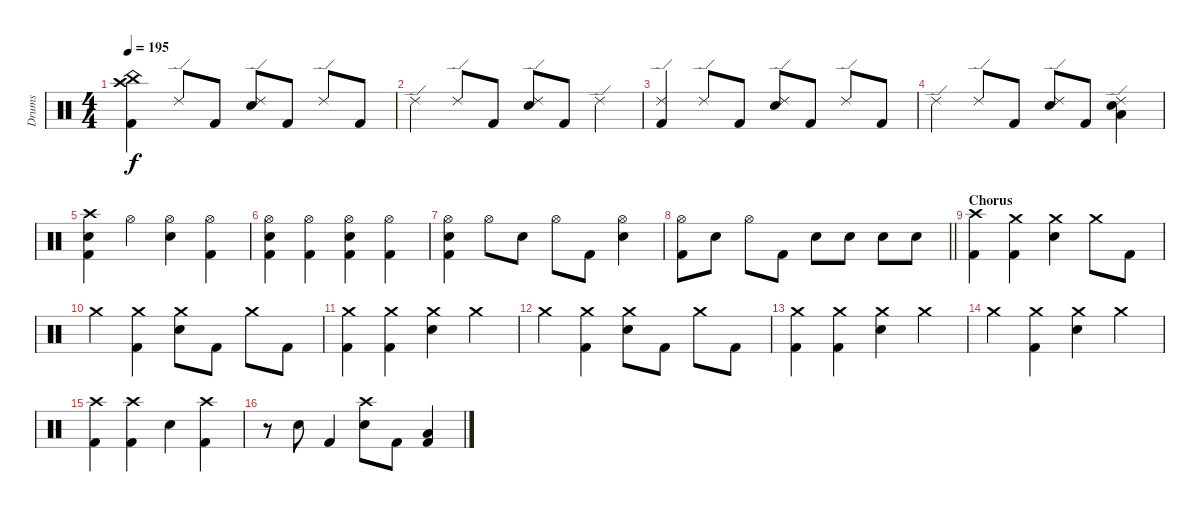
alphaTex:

\track ("Drums" "Drums") {instrument percussion}
\staff {score}
\articulation defaults
\ts (4 4)
\tempo 195
\clef neutral
\ks c
("Crash high (hit)" "Kick (hit) 2" "China (hit)").4{dy f} "Ride (edge) 2".8 "Kick (hit) 2".8 ("Ride (edge) 2" "Snare (hit) 2").8 "Kick (hit) 2".8 "Ride (edge) 2".8 "Kick (hit) 2".8 |
"Ride (edge) 2".4 "Ride (edge) 2".8 "Kick (hit) 2".8 ("Ride (edge) 2" "Snare (hit) 2").8 "Kick (hit) 2".8 "Ride (edge) 2".4 |
("Ride (edge) 2" "Kick (hit) 2").4 "Ride (edge) 2".8 "Kick (hit) 2".8 ("Ride (edge) 2" "Snare (hit) 2").8 "Kick (hit) 2".8 "Ride (edge) 2".8 "Kick (hit) 2".8 |
"Ride (edge) 2".4 "Ride (edge) 2".8 "Kick (hit) 2".8 ("Ride (edge) 2" "Snare (hit) 2").8 "Kick (hit) 2".8 ("Ride (edge) 2" "Snare (hit) 2" "Low Floor Tom (hit)").4 |
("Crash high (hit)" "Snare (hit) 2" "Kick (hit) 2").4 "Hi-Hat (open)".4 ("Hi-Hat (open)" "Snare (hit) 2").4 ("Hi-Hat (open)" "Kick (hit) 2").4 |
("Hi-Hat (open)" "Snare (hit) 2" "Kick (hit) 2").4 ("Hi-Hat (open)" "Kick (hit) 2").4 ("Hi-Hat (open)" "Snare (hit) 2" "Kick (hit) 2").4 ("Hi-Hat (open)" "Kick (hit) 2").4 |
("Hi-Hat (open)" "Snare (hit) 2" "Kick (hit) 2").4 "Hi-Hat (open)".8 "Snare (hit) 2".8 "Hi-Hat (open)".8 "Kick (hit) 2".8 ("Hi-Hat (open)" "Snare (hit) 2").4 |
\barLineRight lightlight
("Hi-Hat (open)" "Kick (hit) 2").8 "Snare (hit) 2".8 "Hi-Hat (open)".8 "Kick (hit) 2".8 "Snare (hit) 2".8 "Snare (hit) 2".8 "Snare (hit) 2".8 "Snare (hit) 2".8 |
\section ("" "Chorus")
("Crash high (hit)" "Kick (hit) 2").4 ("Crash medium (hit)" "Kick (hit) 2").4 ("Crash medium (hit)" "Snare (hit) 2").4 "Crash medium (hit)".8 "Kick (hit) 2".8 |
"Crash medium (hit)".4 ("Crash medium (hit)" "Kick (hit) 2").4 ("Crash medium (hit)" "Snare (hit) 2").8 "Kick (hit) 2".8 "Crash medium (hit)".8 "Kick (hit) 2".8 |
("Crash medium (hit)" "Kick (hit) 2").4 ("Crash medium (hit)" "Kick (hit) 2").4 ("Crash medium (hit)" "Snare (hit) 2").4 "Crash medium (hit)".4 |
"Crash medium (hit)".4 ("Crash medium (hit)" "Kick (hit) 2").4 ("Crash medium (hit)" "Snare (hit) 2").8 "Kick (hit) 2".8 "Crash medium (hit)".8 "Kick (hit) 2".8 |
("Crash medium (hit)" "Kick (hit) 2").4 ("Crash medium (hit)" "Kick (hit) 2").4 ("Crash medium (hit)" "Snare (hit) 2").4 "Crash medium (hit)".4 |
"Crash medium (hit)".4 ("Crash medium (hit)" "Kick (hit) 2").4 ("Crash medium (hit)" "Snare (hit) 2").4 "Crash medium (hit)".4 |
("Crash high (hit)" "Kick (hit) 2").4 ("Crash high (hit)" "Kick (hit) 2").4 "Snare (hit) 2".4 ("Crash high (hit)" "Kick (hit) 2").4 |
r.8 "Snare (hit) 2".8 "Kick (hit) 2".4 ("Crash high (hit)" "Snare (hit) 2").8 "Kick (hit) 2".8 ("Low Floor Tom (hit)" "Kick (hit) 2").4
